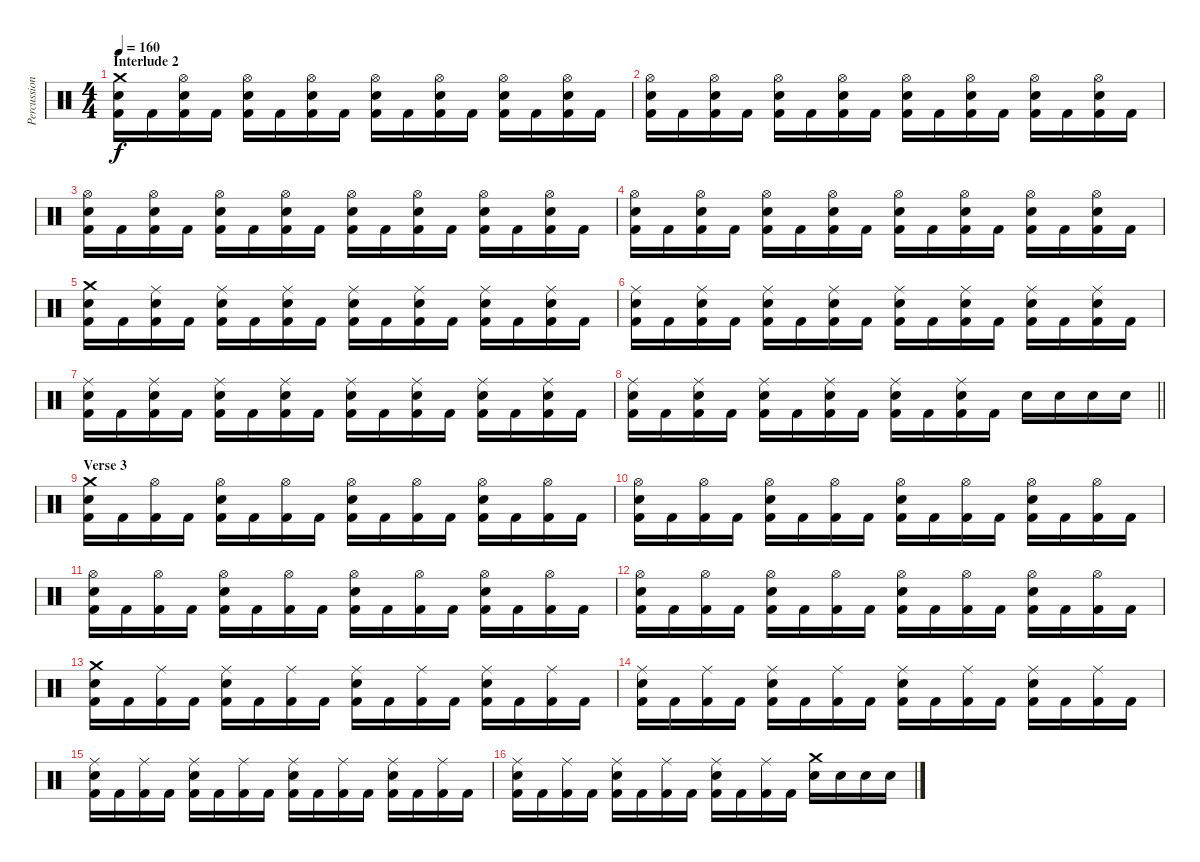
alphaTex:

\track ("Percussion" "Percussion") {instrument percussion}
\staff {score}
\articulation defaults
\ts (4 4)
\section ("" "Interlude 2")
\tempo 160
\clef neutral
\ks c
("Crash medium (hit)" "Snare (hit) 2" "Kick (hit) 2").16{dy f} "Kick (hit) 2".16 ("Hi-Hat (open)" "Snare (hit) 2" "Kick (hit) 2").16 "Kick (hit) 2".16 ("Hi-Hat (open)" "Snare (hit) 2" "Kick (hit) 2").16 "Kick (hit) 2".16 ("Hi-Hat (open)" "Snare (hit) 2" "Kick (hit) 2").16 "Kick (hit) 2".16 ("Hi-Hat (open)" "Snare (hit) 2" "Kick (hit) 2").16 "Kick (hit) 2".16 ("Hi-Hat (open)" "Snare (hit) 2" "Kick (hit) 2").16 "Kick (hit) 2".16 ("Hi-Hat (open)" "Snare (hit) 2" "Kick (hit) 2").16 "Kick (hit) 2".16 ("Hi-Hat (open)" "Snare (hit) 2" "Kick (hit) 2").16 "Kick (hit) 2".16 |
("Hi-Hat (open)" "Snare (hit) 2" "Kick (hit) 2").16 "Kick (hit) 2".16 ("Hi-Hat (open)" "Snare (hit) 2" "Kick (hit) 2").16 "Kick (hit) 2".16 ("Hi-Hat (open)" "Snare (hit) 2" "Kick (hit) 2").16 "Kick (hit) 2".16 ("Hi-Hat (open)" "Snare (hit) 2" "Kick (hit) 2").16 "Kick (hit) 2".16 ("Hi-Hat (open)" "Snare (hit) 2" "Kick (hit) 2").16 "Kick (hit) 2".16 ("Hi-Hat (open)" "Snare (hit) 2" "Kick (hit) 2").16 "Kick (hit) 2".16 ("Hi-Hat (open)" "Snare (hit) 2" "Kick (hit) 2").16 "Kick (hit) 2".16 ("Hi-Hat (open)" "Snare (hit) 2" "Kick (hit) 2").16 "Kick (hit) 2".16 |
("Hi-Hat (open)" "Snare (hit) 2" "Kick (hit) 2").16 "Kick (hit) 2".16 ("Hi-Hat (open)" "Snare (hit) 2" "Kick (hit) 2").16 "Kick (hit) 2".16 ("Hi-Hat (open)" "Snare (hit) 2" "Kick (hit) 2").16 "Kick (hit) 2".16 ("Hi-Hat (open)" "Snare (hit) 2" "Kick (hit) 2").16 "Kick (hit) 2".16 ("Hi-Hat (open)" "Snare (hit) 2" "Kick (hit) 2").16 "Kick (hit) 2".16 ("Hi-Hat (open)" "Snare (hit) 2" "Kick (hit) 2").16 "Kick (hit) 2".16 ("Hi-Hat (open)" "Snare (hit) 2" "Kick (hit) 2").16 "Kick (hit) 2".16 ("Hi-Hat (open)" "Snare (hit) 2" "Kick (hit) 2").16 "Kick (hit) 2".16 |
("Hi-Hat (open)" "Snare (hit) 2" "Kick (hit) 2").16 "Kick (hit) 2".16 ("Hi-Hat (open)" "Snare (hit) 2" "Kick (hit) 2").16 "Kick (hit) 2".16 ("Hi-Hat (open)" "Snare (hit) 2" "Kick (hit) 2").16 "Kick (hit) 2".16 ("Hi-Hat (open)" "Snare (hit) 2" "Kick (hit) 2").16 "Kick (hit) 2".16 ("Hi-Hat (open)" "Snare (hit) 2" "Kick (hit) 2").16 "Kick (hit) 2".16 ("Hi-Hat (open)" "Snare (hit) 2" "Kick (hit) 2").16 "Kick (hit) 2".16 ("Hi-Hat (open)" "Snare (hit) 2" "Kick (hit) 2").16 "Kick (hit) 2".16 ("Hi-Hat (open)" "Snare (hit) 2" "Kick (hit) 2").16 "Kick (hit) 2".16 |
("Crash medium (hit)" "Snare (hit) 2" "Kick (hit) 2").16 "Kick (hit) 2".16 ("Ride (middle)" "Snare (hit) 2" "Kick (hit) 2").16 "Kick (hit) 2".16 ("Ride (middle)" "Snare (hit) 2" "Kick (hit) 2").16 "Kick (hit) 2".16 ("Ride (middle)" "Snare (hit) 2" "Kick (hit) 2").16 "Kick (hit) 2".16 ("Ride (middle)" "Snare (hit) 2" "Kick (hit) 2").16 "Kick (hit) 2".16 ("Ride (middle)" "Snare (hit) 2" "Kick (hit) 2").16 "Kick (hit) 2".16 ("Ride (middle)" "Snare (hit) 2" "Kick (hit) 2").16 "Kick (hit) 2".16 ("Ride (middle)" "Snare (hit) 2" "Kick (hit) 2").16 "Kick (hit) 2".16 |
("Ride (middle)" "Snare (hit) 2" "Kick (hit) 2").16 "Kick (hit) 2".16 ("Ride (middle)" "Snare (hit) 2" "Kick (hit) 2").16 "Kick (hit) 2".16 ("Ride (middle)" "Snare (hit) 2" "Kick (hit) 2").16 "Kick (hit) 2".16 ("Ride (middle)" "Snare (hit) 2" "Kick (hit) 2").16 "Kick (hit) 2".16 ("Ride (middle)" "Snare (hit) 2" "Kick (hit) 2").16 "Kick (hit) 2".16 ("Ride (middle)" "Snare (hit) 2" "Kick (hit) 2").16 "Kick (hit) 2".16 ("Ride (middle)" "Snare (hit) 2" "Kick (hit) 2").16 "Kick (hit) 2".16 ("Ride (middle)" "Snare (hit) 2" "Kick (hit) 2").16 "Kick (hit) 2".16 |
("Ride (middle)" "Snare (hit) 2" "Kick (hit) 2").16 "Kick (hit) 2".16 ("Ride (middle)" "Snare (hit) 2" "Kick (hit) 2").16 "Kick (hit) 2".16 ("Ride (middle)" "Snare (hit) 2" "Kick (hit) 2").16 "Kick (hit) 2".16 ("Ride (middle)" "Snare (hit) 2" "Kick (hit) 2").16 "Kick (hit) 2".16 ("Ride (middle)" "Snare (hit) 2" "Kick (hit) 2").16 "Kick (hit) 2".16 ("Ride (middle)" "Snare (hit) 2" "Kick (hit) 2").16 "Kick (hit) 2".16 ("Ride (middle)" "Snare (hit) 2" "Kick (hit) 2").16 "Kick (hit) 2".16 ("Ride (middle)" "Snare (hit) 2" "Kick (hit) 2").16 "Kick (hit) 2".16 |
\barLineRight lightlight
("Ride (middle)" "Snare (hit) 2" "Kick (hit) 2").16 "Kick (hit) 2".16 ("Ride (middle)" "Snare (hit) 2" "Kick (hit) 2").16 "Kick (hit) 2".16 ("Ride (middle)" "Snare (hit) 2" "Kick (hit) 2").16 "Kick (hit) 2".16 ("Ride (middle)" "Snare (hit) 2" "Kick (hit) 2").16 "Kick (hit) 2".16 ("Ride (middle)" "Snare (hit) 2" "Kick (hit) 2").16 "Kick (hit) 2".16 ("Ride (middle)" "Snare (hit) 2" "Kick (hit) 2").16 "Kick (hit) 2".16 "Snare (hit) 2".16 "Snare (hit) 2".16 "Snare (hit) 2".16 "Snare (hit) 2".16 |
\section ("" "Verse 3")
("Crash medium (hit)" "Snare (hit) 2" "Kick (hit) 2").16 "Kick (hit) 2".16 ("Hi-Hat (open)" "Kick (hit) 2").16 "Kick (hit) 2".16 ("Hi-Hat (open)" "Snare (hit) 2" "Kick (hit) 2").16 "Kick (hit) 2".16 ("Hi-Hat (open)" "Kick (hit) 2").16 "Kick (hit) 2".16 ("Hi-Hat (open)" "Snare (hit) 2" "Kick (hit) 2").16 "Kick (hit) 2".16 ("Hi-Hat (open)" "Kick (hit) 2").16 "Kick (hit) 2".16 ("Hi-Hat (open)" "Snare (hit) 2" "Kick (hit) 2").16 "Kick (hit) 2".16 ("Hi-Hat (open)" "Kick (hit) 2").16 "Kick (hit) 2".16 |
("Hi-Hat (open)" "Snare (hit) 2" "Kick (hit) 2").16 "Kick (hit) 2".16 ("Hi-Hat (open)" "Kick (hit) 2").16 "Kick (hit) 2".16 ("Hi-Hat (open)" "Snare (hit) 2" "Kick (hit) 2").16 "Kick (hit) 2".16 ("Hi-Hat (open)" "Kick (hit) 2").16 "Kick (hit) 2".16 ("Hi-Hat (open)" "Snare (hit) 2" "Kick (hit) 2").16 "Kick (hit) 2".16 ("Hi-Hat (open)" "Kick (hit) 2").16 "Kick (hit) 2".16 ("Hi-Hat (open)" "Snare (hit) 2" "Kick (hit) 2").16 "Kick (hit) 2".16 ("Hi-Hat (open)" "Kick (hit) 2").16 "Kick (hit) 2".16 |
("Hi-Hat (open)" "Snare (hit) 2" "Kick (hit) 2").16 "Kick (hit) 2".16 ("Hi-Hat (open)" "Kick (hit) 2").16 "Kick (hit) 2".16 ("Hi-Hat (open)" "Snare (hit) 2" "Kick (hit) 2").16 "Kick (hit) 2".16 ("Hi-Hat (open)" "Kick (hit) 2").16 "Kick (hit) 2".16 ("Hi-Hat (open)" "Snare (hit) 2" "Kick (hit) 2").16 "Kick (hit) 2".16 ("Hi-Hat (open)" "Kick (hit) 2").16 "Kick (hit) 2".16 ("Hi-Hat (open)" "Snare (hit) 2" "Kick (hit) 2").16 "Kick (hit) 2".16 ("Hi-Hat (open)" "Kick (hit) 2").16 "Kick (hit) 2".16 |
("Hi-Hat (open)" "Snare (hit) 2" "Kick (hit) 2").16 "Kick (hit) 2".16 ("Hi-Hat (open)" "Kick (hit) 2").16 "Kick (hit) 2".16 ("Hi-Hat (open)" "Snare (hit) 2" "Kick (hit) 2").16 "Kick (hit) 2".16 ("Hi-Hat (open)" "Kick (hit) 2").16 "Kick (hit) 2".16 ("Hi-Hat (open)" "Snare (hit) 2" "Kick (hit) 2").16 "Kick (hit) 2".16 ("Hi-Hat (open)" "Kick (hit) 2").16 "Kick (hit) 2".16 ("Hi-Hat (open)" "Snare (hit) 2" "Kick (hit) 2").16 "Kick (hit) 2".16 ("Hi-Hat (open)" "Kick (hit) 2").16 "Kick (hit) 2".16 |
("Crash medium (hit)" "Snare (hit) 2" "Kick (hit) 2").16 "Kick (hit) 2".16 ("Ride (middle)" "Kick (hit) 2").16 "Kick (hit) 2".16 ("Ride (middle)" "Snare (hit) 2" "Kick (hit) 2").16 "Kick (hit) 2".16 ("Ride (middle)" "Kick (hit) 2").16 "Kick (hit) 2".16 ("Ride (middle)" "Snare (hit) 2" "Kick (hit) 2").16 "Kick (hit) 2".16 ("Ride (middle)" "Kick (hit) 2").16 "Kick (hit) 2".16 ("Ride (middle)" "Snare (hit) 2" "Kick (hit) 2").16 "Kick (hit) 2".16 ("Ride (middle)" "Kick (hit) 2").16 "Kick (hit) 2".16 |
("Ride (middle)" "Snare (hit) 2" "Kick (hit) 2").16 "Kick (hit) 2".16 ("Ride (middle)" "Kick (hit) 2").16 "Kick (hit) 2".16 ("Ride (middle)" "Snare (hit) 2" "Kick (hit) 2").16 "Kick (hit) 2".16 ("Ride (middle)" "Kick (hit) 2").16 "Kick (hit) 2".16 ("Ride (middle)" "Snare (hit) 2" "Kick (hit) 2").16 "Kick (hit) 2".16 ("Ride (middle)" "Kick (hit) 2").16 "Kick (hit) 2".16 ("Ride (middle)" "Snare (hit) 2" "Kick (hit) 2").16 "Kick (hit) 2".16 ("Ride (middle)" "Kick (hit) 2").16 "Kick (hit) 2".16 |
("Ride (middle)" "Snare (hit) 2" "Kick (hit) 2").16 "Kick (hit) 2".16 ("Ride (middle)" "Kick (hit) 2").16 "Kick (hit) 2".16 ("Ride (middle)" "Snare (hit) 2" "Kick (hit) 2").16 "Kick (hit) 2".16 ("Ride (middle)" "Kick (hit) 2").16 "Kick (hit) 2".16 ("Ride (middle)" "Snare (hit) 2" "Kick (hit) 2").16 "Kick (hit) 2".16 ("Ride (middle)" "Kick (hit) 2").16 "Kick (hit) 2".16 ("Ride (middle)" "Snare (hit) 2" "Kick (hit) 2").16 "Kick (hit) 2".16 ("Ride (middle)" "Kick (hit) 2").16 "Kick (hit) 2".16 |
("Ride (middle)" "Snare (hit) 2" "Kick (hit) 2").16 "Kick (hit) 2".16 ("Ride (middle)" "Kick (hit) 2").16 "Kick (hit) 2".16 ("Ride (middle)" "Snare (hit) 2" "Kick (hit) 2").16 "Kick (hit) 2".16 ("Ride (middle)" "Kick (hit) 2").16 "Kick (hit) 2".16 ("Ride (middle)" "Snare (hit) 2" "Kick (hit) 2").16 "Kick (hit) 2".16 ("Ride (middle)" "Kick (hit) 2").16 "Kick (hit) 2".16 ("Crash medium (hit)" "Snare (hit) 2").16 "Snare (hit) 2".16 "Snare (hit) 2".16 "Snare (hit) 2".16
